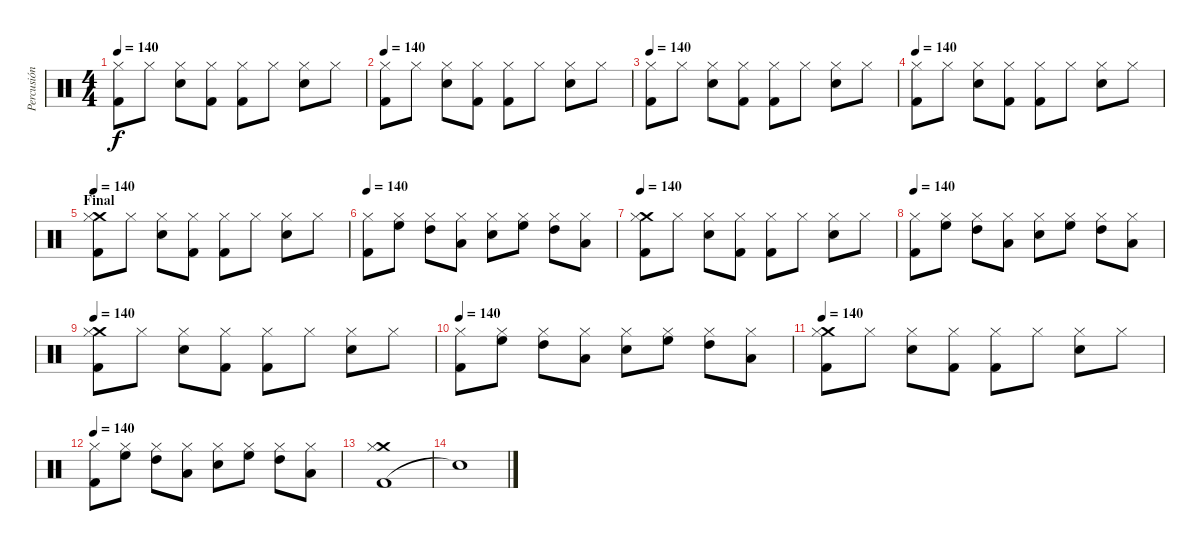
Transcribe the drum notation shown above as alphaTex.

\track ("Percusión" "Percusión") {instrument percussion}
\staff {score}
\articulation defaults
\ts (4 4)
\tempo 140
\clef neutral
\ks c
("Kick (hit) 2" "Hi-Hat (closed)").8{dy f} "Hi-Hat (closed)".8 ("Snare (hit) 2" "Hi-Hat (closed)").8 ("Kick (hit) 2" "Hi-Hat (closed)").8 ("Kick (hit) 2" "Hi-Hat (closed)").8 "Hi-Hat (closed)".8 ("Snare (hit) 2" "Hi-Hat (closed)").8 "Hi-Hat (closed)".8 |
\tempo 140
("Kick (hit) 2" "Hi-Hat (closed)").8 "Hi-Hat (closed)".8 ("Snare (hit) 2" "Hi-Hat (closed)").8 ("Kick (hit) 2" "Hi-Hat (closed)").8 ("Kick (hit) 2" "Hi-Hat (closed)").8 "Hi-Hat (closed)".8 ("Snare (hit) 2" "Hi-Hat (closed)").8 "Hi-Hat (closed)".8 |
\tempo 140
("Kick (hit) 2" "Hi-Hat (closed)").8 "Hi-Hat (closed)".8 ("Snare (hit) 2" "Hi-Hat (closed)").8 ("Kick (hit) 2" "Hi-Hat (closed)").8 ("Kick (hit) 2" "Hi-Hat (closed)").8 "Hi-Hat (closed)".8 ("Snare (hit) 2" "Hi-Hat (closed)").8 "Hi-Hat (closed)".8 |
\tempo 140
("Kick (hit) 2" "Hi-Hat (closed)").8 "Hi-Hat (closed)".8 ("Snare (hit) 2" "Hi-Hat (closed)").8 ("Kick (hit) 2" "Hi-Hat (closed)").8 ("Kick (hit) 2" "Hi-Hat (closed)").8 "Hi-Hat (closed)".8 ("Snare (hit) 2" "Hi-Hat (closed)").8 "Hi-Hat (closed)".8 |
\section ("" "Final")
\tempo 140
("Kick (hit) 2" "Crash medium (hit)" "Hi-Hat (closed)").8 "Hi-Hat (closed)".8 ("Snare (hit) 2" "Hi-Hat (closed)").8 ("Kick (hit) 2" "Hi-Hat (closed)").8 ("Kick (hit) 2" "Hi-Hat (closed)").8 "Hi-Hat (closed)".8 ("Snare (hit) 2" "Hi-Hat (closed)").8 "Hi-Hat (closed)".8 |
\tempo 140
("Kick (hit) 2" "Hi-Hat (closed)").8 ("High Floor Tom (hit)" "Hi-Hat (closed)").8 ("High Tom (hit)" "Hi-Hat (closed)").8 ("Low Tom (hit)" "Hi-Hat (closed)").8 ("Snare (hit) 2" "Hi-Hat (closed)").8 ("High Floor Tom (hit)" "Hi-Hat (closed)").8 ("High Tom (hit)" "Hi-Hat (closed)").8 ("Low Tom (hit)" "Hi-Hat (closed)").8 |
\tempo 140
("Kick (hit) 2" "Crash medium (hit)" "Hi-Hat (closed)").8 "Hi-Hat (closed)".8 ("Snare (hit) 2" "Hi-Hat (closed)").8 ("Kick (hit) 2" "Hi-Hat (closed)").8 ("Kick (hit) 2" "Hi-Hat (closed)").8 "Hi-Hat (closed)".8 ("Snare (hit) 2" "Hi-Hat (closed)").8 "Hi-Hat (closed)".8 |
\tempo 140
("Kick (hit) 2" "Hi-Hat (closed)").8 ("High Floor Tom (hit)" "Hi-Hat (closed)").8 ("High Tom (hit)" "Hi-Hat (closed)").8 ("Low Tom (hit)" "Hi-Hat (closed)").8 ("Snare (hit) 2" "Hi-Hat (closed)").8 ("High Floor Tom (hit)" "Hi-Hat (closed)").8 ("High Tom (hit)" "Hi-Hat (closed)").8 ("Low Tom (hit)" "Hi-Hat (closed)").8 |
\tempo 140
("Kick (hit) 2" "Crash medium (hit)" "Hi-Hat (closed)").8 "Hi-Hat (closed)".8 ("Snare (hit) 2" "Hi-Hat (closed)").8 ("Kick (hit) 2" "Hi-Hat (closed)").8 ("Kick (hit) 2" "Hi-Hat (closed)").8 "Hi-Hat (closed)".8 ("Snare (hit) 2" "Hi-Hat (closed)").8 "Hi-Hat (closed)".8 |
\tempo 140
("Kick (hit) 2" "Hi-Hat (closed)").8 ("High Floor Tom (hit)" "Hi-Hat (closed)").8 ("High Tom (hit)" "Hi-Hat (closed)").8 ("Low Tom (hit)" "Hi-Hat (closed)").8 ("Snare (hit) 2" "Hi-Hat (closed)").8 ("High Floor Tom (hit)" "Hi-Hat (closed)").8 ("High Tom (hit)" "Hi-Hat (closed)").8 ("Low Tom (hit)" "Hi-Hat (closed)").8 |
\tempo 140
("Kick (hit) 2" "Crash medium (hit)" "Hi-Hat (closed)").8 "Hi-Hat (closed)".8 ("Snare (hit) 2" "Hi-Hat (closed)").8 ("Kick (hit) 2" "Hi-Hat (closed)").8 ("Kick (hit) 2" "Hi-Hat (closed)").8 "Hi-Hat (closed)".8 ("Snare (hit) 2" "Hi-Hat (closed)").8 "Hi-Hat (closed)".8 |
\tempo 140
("Kick (hit) 2" "Hi-Hat (closed)").8 ("High Floor Tom (hit)" "Hi-Hat (closed)").8 ("High Tom (hit)" "Hi-Hat (closed)").8 ("Low Tom (hit)" "Hi-Hat (closed)").8 ("Snare (hit) 2" "Hi-Hat (closed)").8 ("High Floor Tom (hit)" "Hi-Hat (closed)").8 ("High Tom (hit)" "Hi-Hat (closed)").8 ("Low Tom (hit)" "Hi-Hat (closed)").8 |
("Kick (hit) 2" "Crash medium (hit)" "Hi-Hat (closed)").1 |
"Snare (hit)"{t}.1
